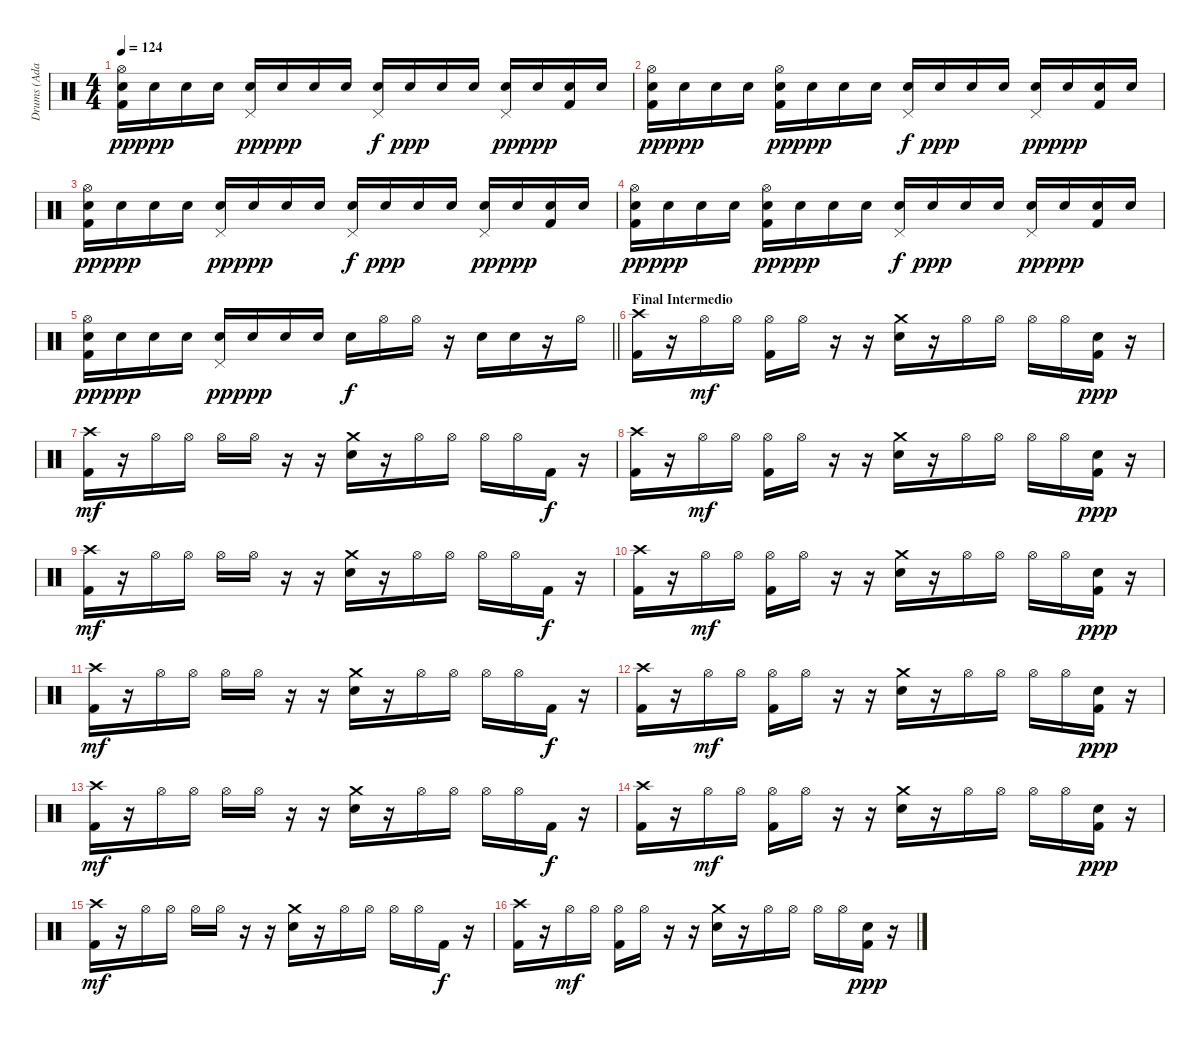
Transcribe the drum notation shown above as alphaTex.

\track ("Drums (Adam Morgan)" "Drums (Ada") {instrument percussion}
\staff {score}
\articulation defaults
\ts (4 4)
\tempo 124
\clef neutral
\ks c
("Hi-Hat (open)" "Snare (hit) 2" "Kick (hit) 2").16{dy pp} "Snare (hit) 2".16{dy ppp} "Snare (hit) 2".16 "Snare (hit) 2".16 ("Pedal Hi-Hat (hit)" "Snare (hit) 2").16{dy pp} "Snare (hit) 2".16{dy ppp} "Snare (hit) 2".16 "Snare (hit) 2".16 ("Pedal Hi-Hat (hit)" "Snare (hit) 2").16{dy f} "Snare (hit) 2".16{dy ppp} "Snare (hit) 2".16 "Snare (hit) 2".16 ("Pedal Hi-Hat (hit)" "Snare (hit) 2").16{dy pp} "Snare (hit) 2".16{dy ppp} ("Snare (hit) 2" "Kick (hit) 2").16 "Snare (hit) 2".16 |
("Hi-Hat (open)" "Snare (hit) 2" "Kick (hit) 2").16{dy pp} "Snare (hit) 2".16{dy ppp} "Snare (hit) 2".16 "Snare (hit) 2".16 ("Hi-Hat (open)" "Snare (hit) 2" "Kick (hit) 2").16{dy pp} "Snare (hit) 2".16{dy ppp} "Snare (hit) 2".16 "Snare (hit) 2".16 ("Pedal Hi-Hat (hit)" "Snare (hit) 2").16{dy f} "Snare (hit) 2".16{dy ppp} "Snare (hit) 2".16 "Snare (hit) 2".16 ("Pedal Hi-Hat (hit)" "Snare (hit) 2").16{dy pp} "Snare (hit) 2".16{dy ppp} ("Snare (hit) 2" "Kick (hit) 2").16 "Snare (hit) 2".16 |
("Hi-Hat (open)" "Snare (hit) 2" "Kick (hit) 2").16{dy pp} "Snare (hit) 2".16{dy ppp} "Snare (hit) 2".16 "Snare (hit) 2".16 ("Pedal Hi-Hat (hit)" "Snare (hit) 2").16{dy pp} "Snare (hit) 2".16{dy ppp} "Snare (hit) 2".16 "Snare (hit) 2".16 ("Pedal Hi-Hat (hit)" "Snare (hit) 2").16{dy f} "Snare (hit) 2".16{dy ppp} "Snare (hit) 2".16 "Snare (hit) 2".16 ("Pedal Hi-Hat (hit)" "Snare (hit) 2").16{dy pp} "Snare (hit) 2".16{dy ppp} ("Snare (hit) 2" "Kick (hit) 2").16 "Snare (hit) 2".16 |
("Hi-Hat (open)" "Snare (hit) 2" "Kick (hit) 2").16{dy pp} "Snare (hit) 2".16{dy ppp} "Snare (hit) 2".16 "Snare (hit) 2".16 ("Hi-Hat (open)" "Snare (hit) 2" "Kick (hit) 2").16{dy pp} "Snare (hit) 2".16{dy ppp} "Snare (hit) 2".16 "Snare (hit) 2".16 ("Pedal Hi-Hat (hit)" "Snare (hit) 2").16{dy f} "Snare (hit) 2".16{dy ppp} "Snare (hit) 2".16 "Snare (hit) 2".16 ("Pedal Hi-Hat (hit)" "Snare (hit) 2").16{dy pp} "Snare (hit) 2".16{dy ppp} ("Snare (hit) 2" "Kick (hit) 2").16 "Snare (hit) 2".16 |
\barLineRight lightlight
("Hi-Hat (open)" "Snare (hit) 2" "Kick (hit) 2").16{dy pp} "Snare (hit) 2".16{dy ppp} "Snare (hit) 2".16 "Snare (hit) 2".16 ("Pedal Hi-Hat (hit)" "Snare (hit) 2").16{dy pp} "Snare (hit) 2".16{dy ppp} "Snare (hit) 2".16 "Snare (hit) 2".16 "Snare (hit) 2".16{dy f} "Hi-Hat (open)".16 "Hi-Hat (open)".16 r.16 "Snare (hit) 2".16 "Snare (hit) 2".16 r.16 "Hi-Hat (open)".16 |
\section ("" "Final Intermedio")
("Crash high (hit)" "Kick (hit) 2").16 r.16 "Hi-Hat (open)".16{dy mf} "Hi-Hat (open)".16 ("Hi-Hat (open)" "Kick (hit) 2").16 "Hi-Hat (open)".16 r.16 r.16 ("Crash medium (hit)" "Snare (hit) 2").16 r.16 "Hi-Hat (open)".16 "Hi-Hat (open)".16 "Hi-Hat (open)".16 "Hi-Hat (open)".16 ("Snare (hit) 2" "Kick (hit) 2").16{dy ppp} r.16 |
("Crash high (hit)" "Kick (hit) 2").16{dy mf} r.16 "Hi-Hat (open)".16 "Hi-Hat (open)".16 "Hi-Hat (open)".16 "Hi-Hat (open)".16 r.16 r.16 ("Crash medium (hit)" "Snare (hit) 2").16 r.16 "Hi-Hat (open)".16 "Hi-Hat (open)".16 "Hi-Hat (open)".16 "Hi-Hat (open)".16 "Kick (hit) 2".16{dy f} r.16 |
("Crash high (hit)" "Kick (hit) 2").16 r.16 "Hi-Hat (open)".16{dy mf} "Hi-Hat (open)".16 ("Hi-Hat (open)" "Kick (hit) 2").16 "Hi-Hat (open)".16 r.16 r.16 ("Crash medium (hit)" "Snare (hit) 2").16 r.16 "Hi-Hat (open)".16 "Hi-Hat (open)".16 "Hi-Hat (open)".16 "Hi-Hat (open)".16 ("Snare (hit) 2" "Kick (hit) 2").16{dy ppp} r.16 |
("Crash high (hit)" "Kick (hit) 2").16{dy mf} r.16 "Hi-Hat (open)".16 "Hi-Hat (open)".16 "Hi-Hat (open)".16 "Hi-Hat (open)".16 r.16 r.16 ("Crash medium (hit)" "Snare (hit) 2").16 r.16 "Hi-Hat (open)".16 "Hi-Hat (open)".16 "Hi-Hat (open)".16 "Hi-Hat (open)".16 "Kick (hit) 2".16{dy f} r.16 |
("Crash high (hit)" "Kick (hit) 2").16 r.16 "Hi-Hat (open)".16{dy mf} "Hi-Hat (open)".16 ("Hi-Hat (open)" "Kick (hit) 2").16 "Hi-Hat (open)".16 r.16 r.16 ("Crash medium (hit)" "Snare (hit) 2").16 r.16 "Hi-Hat (open)".16 "Hi-Hat (open)".16 "Hi-Hat (open)".16 "Hi-Hat (open)".16 ("Snare (hit) 2" "Kick (hit) 2").16{dy ppp} r.16 |
("Crash high (hit)" "Kick (hit) 2").16{dy mf} r.16 "Hi-Hat (open)".16 "Hi-Hat (open)".16 "Hi-Hat (open)".16 "Hi-Hat (open)".16 r.16 r.16 ("Crash medium (hit)" "Snare (hit) 2").16 r.16 "Hi-Hat (open)".16 "Hi-Hat (open)".16 "Hi-Hat (open)".16 "Hi-Hat (open)".16 "Kick (hit) 2".16{dy f} r.16 |
("Crash high (hit)" "Kick (hit) 2").16 r.16 "Hi-Hat (open)".16{dy mf} "Hi-Hat (open)".16 ("Hi-Hat (open)" "Kick (hit) 2").16 "Hi-Hat (open)".16 r.16 r.16 ("Crash medium (hit)" "Snare (hit) 2").16 r.16 "Hi-Hat (open)".16 "Hi-Hat (open)".16 "Hi-Hat (open)".16 "Hi-Hat (open)".16 ("Snare (hit) 2" "Kick (hit) 2").16{dy ppp} r.16 |
("Crash high (hit)" "Kick (hit) 2").16{dy mf} r.16 "Hi-Hat (open)".16 "Hi-Hat (open)".16 "Hi-Hat (open)".16 "Hi-Hat (open)".16 r.16 r.16 ("Crash medium (hit)" "Snare (hit) 2").16 r.16 "Hi-Hat (open)".16 "Hi-Hat (open)".16 "Hi-Hat (open)".16 "Hi-Hat (open)".16 "Kick (hit) 2".16{dy f} r.16 |
("Crash high (hit)" "Kick (hit) 2").16 r.16 "Hi-Hat (open)".16{dy mf} "Hi-Hat (open)".16 ("Hi-Hat (open)" "Kick (hit) 2").16 "Hi-Hat (open)".16 r.16 r.16 ("Crash medium (hit)" "Snare (hit) 2").16 r.16 "Hi-Hat (open)".16 "Hi-Hat (open)".16 "Hi-Hat (open)".16 "Hi-Hat (open)".16 ("Snare (hit) 2" "Kick (hit) 2").16{dy ppp} r.16 |
("Crash high (hit)" "Kick (hit) 2").16{dy mf} r.16 "Hi-Hat (open)".16 "Hi-Hat (open)".16 "Hi-Hat (open)".16 "Hi-Hat (open)".16 r.16 r.16 ("Crash medium (hit)" "Snare (hit) 2").16 r.16 "Hi-Hat (open)".16 "Hi-Hat (open)".16 "Hi-Hat (open)".16 "Hi-Hat (open)".16 "Kick (hit) 2".16{dy f} r.16 |
("Crash high (hit)" "Kick (hit) 2").16 r.16 "Hi-Hat (open)".16{dy mf} "Hi-Hat (open)".16 ("Hi-Hat (open)" "Kick (hit) 2").16 "Hi-Hat (open)".16 r.16 r.16 ("Crash medium (hit)" "Snare (hit) 2").16 r.16 "Hi-Hat (open)".16 "Hi-Hat (open)".16 "Hi-Hat (open)".16 "Hi-Hat (open)".16 ("Snare (hit) 2" "Kick (hit) 2").16{dy ppp} r.16
